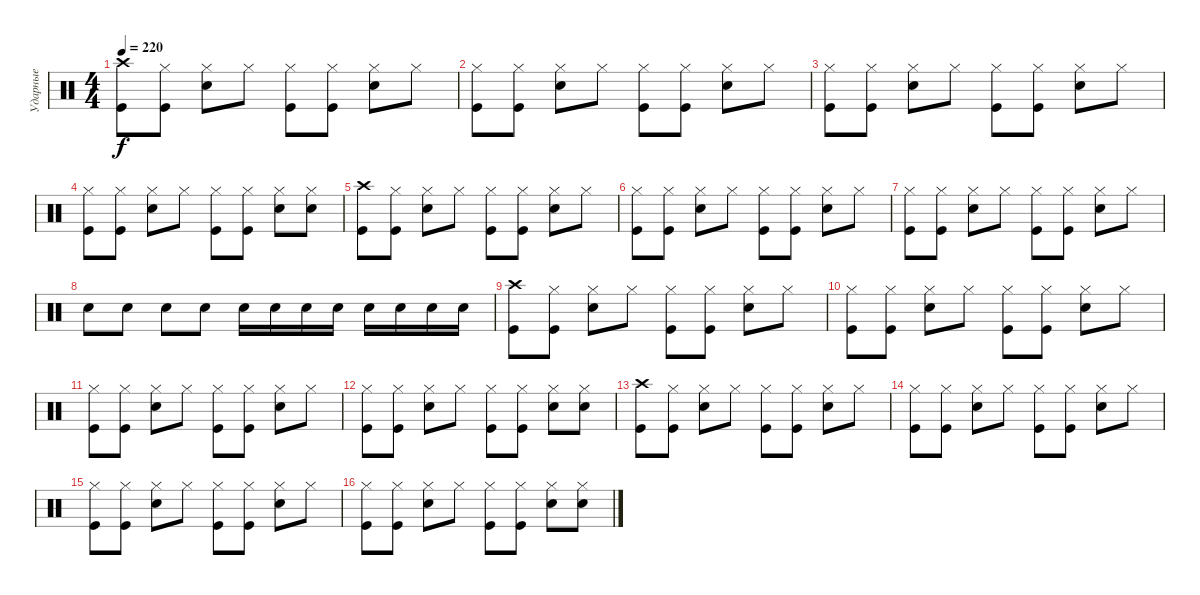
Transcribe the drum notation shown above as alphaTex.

\track ("Ударные" "Ударные") {instrument percussion}
\staff {score}
\articulation defaults
\ts (4 4)
\tempo 220
\clef neutral
\ks c
("Crash high (hit)" "Kick (hit)").8{dy f} ("Hi-Hat (closed)" "Kick (hit)").8 ("Hi-Hat (closed)" "Snare (hit) 2").8 "Hi-Hat (closed)".8 ("Hi-Hat (closed)" "Kick (hit)").8 ("Hi-Hat (closed)" "Kick (hit)").8 ("Hi-Hat (closed)" "Snare (hit) 2").8 "Hi-Hat (closed)".8 |
("Hi-Hat (closed)" "Kick (hit)").8 ("Hi-Hat (closed)" "Kick (hit)").8 ("Hi-Hat (closed)" "Snare (hit) 2").8 "Hi-Hat (closed)".8 ("Hi-Hat (closed)" "Kick (hit)").8 ("Hi-Hat (closed)" "Kick (hit)").8 ("Hi-Hat (closed)" "Snare (hit) 2").8 "Hi-Hat (closed)".8 |
("Hi-Hat (closed)" "Kick (hit)").8 ("Hi-Hat (closed)" "Kick (hit)").8 ("Hi-Hat (closed)" "Snare (hit) 2").8 "Hi-Hat (closed)".8 ("Hi-Hat (closed)" "Kick (hit)").8 ("Hi-Hat (closed)" "Kick (hit)").8 ("Hi-Hat (closed)" "Snare (hit) 2").8 "Hi-Hat (closed)".8 |
("Hi-Hat (closed)" "Kick (hit)").8 ("Hi-Hat (closed)" "Kick (hit)").8 ("Hi-Hat (closed)" "Snare (hit) 2").8 "Hi-Hat (closed)".8 ("Hi-Hat (closed)" "Kick (hit)").8 ("Hi-Hat (closed)" "Kick (hit)").8 ("Hi-Hat (closed)" "Snare (hit) 2").8 ("Hi-Hat (closed)" "Snare (hit) 2").8 |
("Crash high (hit)" "Kick (hit)").8 ("Hi-Hat (closed)" "Kick (hit)").8 ("Hi-Hat (closed)" "Snare (hit) 2").8 "Hi-Hat (closed)".8 ("Hi-Hat (closed)" "Kick (hit)").8 ("Hi-Hat (closed)" "Kick (hit)").8 ("Hi-Hat (closed)" "Snare (hit) 2").8 "Hi-Hat (closed)".8 |
("Hi-Hat (closed)" "Kick (hit)").8 ("Hi-Hat (closed)" "Kick (hit)").8 ("Hi-Hat (closed)" "Snare (hit) 2").8 "Hi-Hat (closed)".8 ("Hi-Hat (closed)" "Kick (hit)").8 ("Hi-Hat (closed)" "Kick (hit)").8 ("Hi-Hat (closed)" "Snare (hit) 2").8 "Hi-Hat (closed)".8 |
("Hi-Hat (closed)" "Kick (hit)").8 ("Hi-Hat (closed)" "Kick (hit)").8 ("Hi-Hat (closed)" "Snare (hit) 2").8 "Hi-Hat (closed)".8 ("Hi-Hat (closed)" "Kick (hit)").8 ("Hi-Hat (closed)" "Kick (hit)").8 ("Hi-Hat (closed)" "Snare (hit) 2").8 "Hi-Hat (closed)".8 |
"Snare (hit) 2".8 "Snare (hit) 2".8 "Snare (hit) 2".8 "Snare (hit) 2".8 "Snare (hit) 2".16 "Snare (hit) 2".16 "Snare (hit) 2".16 "Snare (hit) 2".16 "Snare (hit) 2".16 "Snare (hit) 2".16 "Snare (hit) 2".16 "Snare (hit) 2".16 |
("Crash high (hit)" "Kick (hit)").8 ("Hi-Hat (closed)" "Kick (hit)").8 ("Hi-Hat (closed)" "Snare (hit) 2").8 "Hi-Hat (closed)".8 ("Hi-Hat (closed)" "Kick (hit)").8 ("Hi-Hat (closed)" "Kick (hit)").8 ("Hi-Hat (closed)" "Snare (hit) 2").8 "Hi-Hat (closed)".8 |
("Hi-Hat (closed)" "Kick (hit)").8 ("Hi-Hat (closed)" "Kick (hit)").8 ("Hi-Hat (closed)" "Snare (hit) 2").8 "Hi-Hat (closed)".8 ("Hi-Hat (closed)" "Kick (hit)").8 ("Hi-Hat (closed)" "Kick (hit)").8 ("Hi-Hat (closed)" "Snare (hit) 2").8 "Hi-Hat (closed)".8 |
("Hi-Hat (closed)" "Kick (hit)").8 ("Hi-Hat (closed)" "Kick (hit)").8 ("Hi-Hat (closed)" "Snare (hit) 2").8 "Hi-Hat (closed)".8 ("Hi-Hat (closed)" "Kick (hit)").8 ("Hi-Hat (closed)" "Kick (hit)").8 ("Hi-Hat (closed)" "Snare (hit) 2").8 "Hi-Hat (closed)".8 |
("Hi-Hat (closed)" "Kick (hit)").8 ("Hi-Hat (closed)" "Kick (hit)").8 ("Hi-Hat (closed)" "Snare (hit) 2").8 "Hi-Hat (closed)".8 ("Hi-Hat (closed)" "Kick (hit)").8 ("Hi-Hat (closed)" "Kick (hit)").8 ("Hi-Hat (closed)" "Snare (hit) 2").8 ("Hi-Hat (closed)" "Snare (hit) 2").8 |
("Crash high (hit)" "Kick (hit)").8 ("Hi-Hat (closed)" "Kick (hit)").8 ("Hi-Hat (closed)" "Snare (hit) 2").8 "Hi-Hat (closed)".8 ("Hi-Hat (closed)" "Kick (hit)").8 ("Hi-Hat (closed)" "Kick (hit)").8 ("Hi-Hat (closed)" "Snare (hit) 2").8 "Hi-Hat (closed)".8 |
("Hi-Hat (closed)" "Kick (hit)").8 ("Hi-Hat (closed)" "Kick (hit)").8 ("Hi-Hat (closed)" "Snare (hit) 2").8 "Hi-Hat (closed)".8 ("Hi-Hat (closed)" "Kick (hit)").8 ("Hi-Hat (closed)" "Kick (hit)").8 ("Hi-Hat (closed)" "Snare (hit) 2").8 "Hi-Hat (closed)".8 |
("Hi-Hat (closed)" "Kick (hit)").8 ("Hi-Hat (closed)" "Kick (hit)").8 ("Hi-Hat (closed)" "Snare (hit) 2").8 "Hi-Hat (closed)".8 ("Hi-Hat (closed)" "Kick (hit)").8 ("Hi-Hat (closed)" "Kick (hit)").8 ("Hi-Hat (closed)" "Snare (hit) 2").8 "Hi-Hat (closed)".8 |
("Hi-Hat (closed)" "Kick (hit)").8 ("Hi-Hat (closed)" "Kick (hit)").8 ("Hi-Hat (closed)" "Snare (hit) 2").8 "Hi-Hat (closed)".8 ("Hi-Hat (closed)" "Kick (hit)").8 ("Hi-Hat (closed)" "Kick (hit)").8 ("Hi-Hat (closed)" "Snare (hit) 2").8 ("Hi-Hat (closed)" "Snare (hit) 2").8
